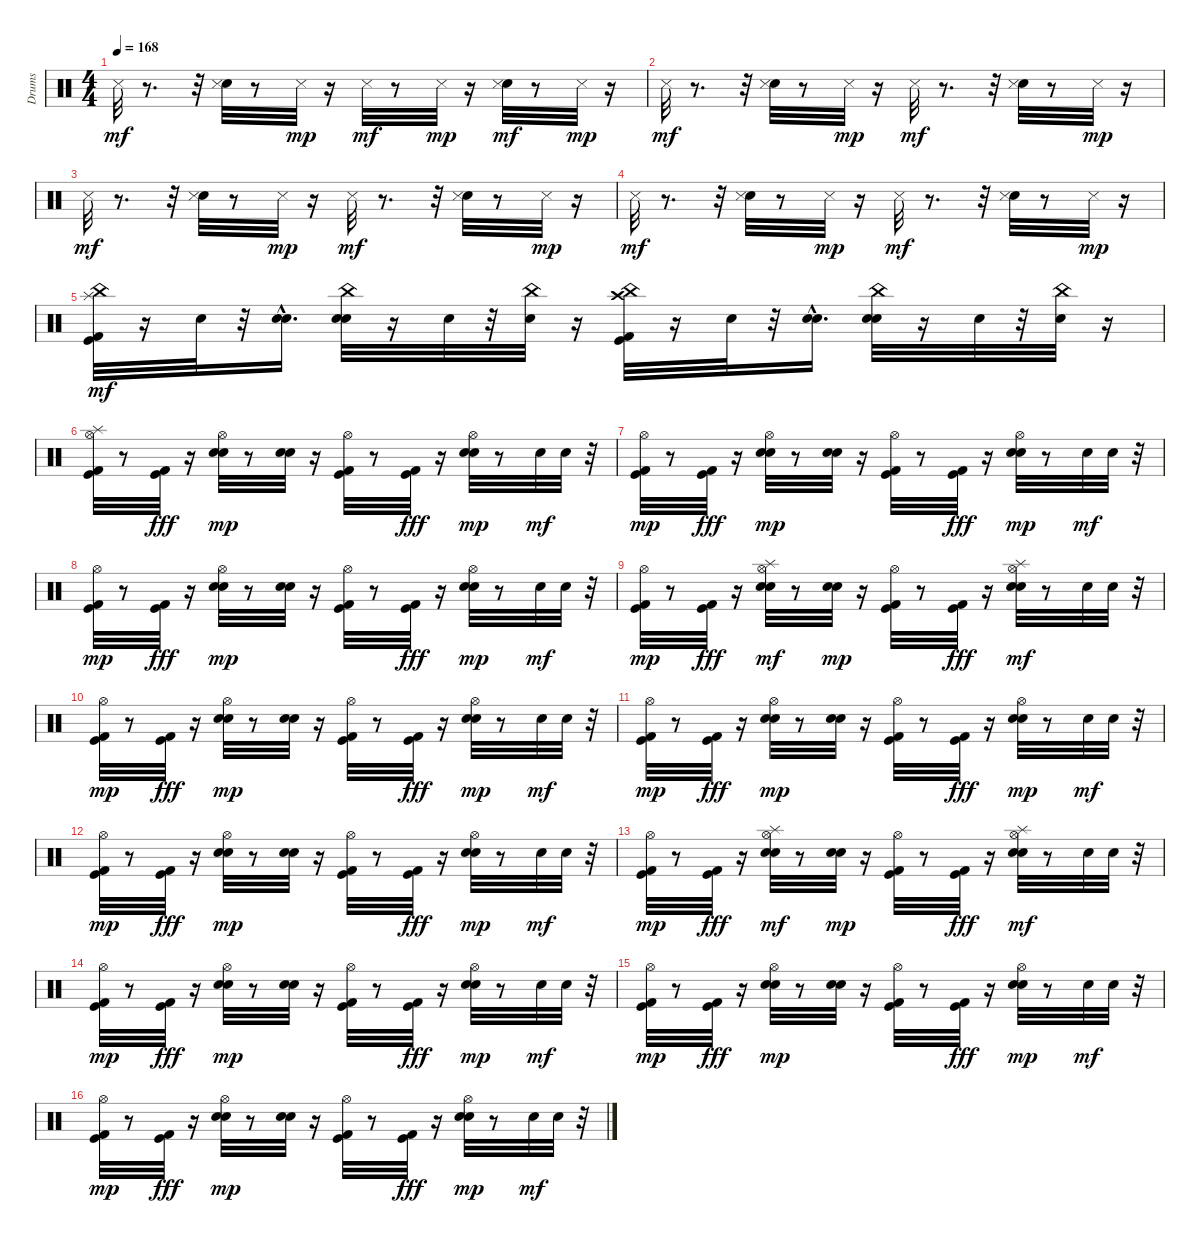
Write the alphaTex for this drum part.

\track ("Drums" "Drums") {instrument percussion}
\staff {score}
\articulation defaults
\ts (4 4)
\tempo 168
\clef neutral
\ks c "Snare (side stick) 3".32{dy mf}
r.8{d} r.32 ("Hand Clap (hit)" "Snare (side stick) 3").32 r.8 "Snare (side stick) 3".32{dy mp} r.16 "Snare (side stick) 3".32{dy mf} r.8 "Snare (side stick) 3".32{dy mp} r.16 ("Hand Clap (hit)" "Snare (side stick) 3").32{dy mf} r.8 "Snare (side stick) 3".32{dy mp} r.16 |
"Snare (side stick) 3".32{dy mf} r.8{d} r.32 ("Hand Clap (hit)" "Snare (side stick) 3").32 r.8 "Snare (side stick) 3".32{dy mp} r.16 "Snare (side stick) 3".32{dy mf} r.8{d} r.32 ("Hand Clap (hit)" "Snare (side stick) 3").32 r.8 "Snare (side stick) 3".32{dy mp} r.16 |
"Snare (side stick) 3".32{dy mf} r.8{d} r.32 ("Hand Clap (hit)" "Snare (side stick) 3").32 r.8 "Snare (side stick) 3".32{dy mp} r.16 "Snare (side stick) 3".32{dy mf} r.8{d} r.32 ("Hand Clap (hit)" "Snare (side stick) 3").32 r.8 "Snare (side stick) 3".32{dy mp} r.16 |
"Snare (side stick) 3".32{dy mf} r.8{d} r.32 ("Hand Clap (hit)" "Snare (side stick) 3").32 r.8 "Snare (side stick) 3".32{dy mp} r.16 "Snare (side stick) 3".32{dy mf} r.8{d} r.32 ("Hand Clap (hit)" "Snare (side stick) 3").32 r.8 "Snare (side stick) 3".32{dy mp} r.16 |
("Kick (hit) 2" "Kick (hit)" "China (hit)" "Splash (hit)").32{dy mf} r.16 "Snare (hit) 2".32 r.32 ("Snare (hit) 2"{hac} "Snare (hit) 2").16{d} ("Snare (hit) 2" "China (hit)" "Hand Clap (hit)").32 r.16 "Snare (hit) 2".32 r.32 ("China (hit)" "Snare (hit) 2").32 r.16 ("China (hit)" "Kick (hit) 2" "Kick (hit)" "Crash high (hit)").32 r.16 "Snare (hit) 2".32 r.32 ("Snare (hit) 2"{hac} "Snare (hit) 2").16{d} ("China (hit)" "Hand Clap (hit)" "Snare (hit) 2").32 r.16 "Snare (hit) 2".32 r.32 ("China (hit)" "Snare (hit) 2").32 r.16 |
("Kick (hit) 2" "Kick (hit)" "Hi-Hat (open)" "Splash (hit)").32 r.8 ("Kick (hit) 2" "Kick (hit)").32{dy fff} r.16 ("Snare (hit) 2" "Hand Clap (hit)" "Hi-Hat (open)").32{dy mp} r.8 ("Snare (hit) 2" "Hand Clap (hit)").32 r.16 ("Kick (hit) 2" "Kick (hit)" "Hi-Hat (open)").32 r.8 ("Kick (hit) 2" "Kick (hit)").32{dy fff} r.16 ("Snare (hit) 2" "Hand Clap (hit)" "Hi-Hat (open)").32{dy mp} r.8 "Snare (hit) 2".32{dy mf} "Hand Clap (hit)".32 r.32 |
("Kick (hit) 2" "Kick (hit)" "Hi-Hat (open)").32{dy mp} r.8 ("Kick (hit) 2" "Kick (hit)").32{dy fff} r.16 ("Snare (hit) 2" "Hand Clap (hit)" "Hi-Hat (open)").32{dy mp} r.8 ("Snare (hit) 2" "Hand Clap (hit)").32 r.16 ("Kick (hit) 2" "Kick (hit)" "Hi-Hat (open)").32 r.8 ("Kick (hit) 2" "Kick (hit)").32{dy fff} r.16 ("Snare (hit) 2" "Hand Clap (hit)" "Hi-Hat (open)").32{dy mp} r.8 "Snare (hit) 2".32{dy mf} "Hand Clap (hit)".32 r.32 |
("Kick (hit) 2" "Kick (hit)" "Hi-Hat (open)").32{dy mp} r.8 ("Kick (hit) 2" "Kick (hit)").32{dy fff} r.16 ("Snare (hit) 2" "Hand Clap (hit)" "Hi-Hat (open)").32{dy mp} r.8 ("Snare (hit) 2" "Hand Clap (hit)").32 r.16 ("Kick (hit) 2" "Kick (hit)" "Hi-Hat (open)").32 r.8 ("Kick (hit) 2" "Kick (hit)").32{dy fff} r.16 ("Snare (hit) 2" "Hand Clap (hit)" "Hi-Hat (open)").32{dy mp} r.8 "Snare (hit) 2".32{dy mf} "Hand Clap (hit)".32 r.32 |
("Kick (hit) 2" "Kick (hit)" "Hi-Hat (open)").32{dy mp} r.8 ("Kick (hit) 2" "Kick (hit)").32{dy fff} r.16 ("Snare (hit) 2" "Hand Clap (hit)" "Hi-Hat (open)" "Splash (hit)").32{dy mf} r.8 ("Snare (hit) 2" "Hand Clap (hit)").32{dy mp} r.16 ("Kick (hit) 2" "Kick (hit)" "Hi-Hat (open)").32 r.8 ("Kick (hit) 2" "Kick (hit)").32{dy fff} r.16 ("Snare (hit) 2" "Hand Clap (hit)" "Hi-Hat (open)" "Splash (hit)").32{dy mf} r.8 "Snare (hit) 2".32 "Hand Clap (hit)".32 r.32 |
("Kick (hit) 2" "Kick (hit)" "Hi-Hat (open)").32{dy mp} r.8 ("Kick (hit) 2" "Kick (hit)").32{dy fff} r.16 ("Snare (hit) 2" "Hand Clap (hit)" "Hi-Hat (open)").32{dy mp} r.8 ("Snare (hit) 2" "Hand Clap (hit)").32 r.16 ("Kick (hit) 2" "Kick (hit)" "Hi-Hat (open)").32 r.8 ("Kick (hit) 2" "Kick (hit)").32{dy fff} r.16 ("Snare (hit) 2" "Hand Clap (hit)" "Hi-Hat (open)").32{dy mp} r.8 "Snare (hit) 2".32{dy mf} "Hand Clap (hit)".32 r.32 |
("Kick (hit) 2" "Kick (hit)" "Hi-Hat (open)").32{dy mp} r.8 ("Kick (hit) 2" "Kick (hit)").32{dy fff} r.16 ("Snare (hit) 2" "Hand Clap (hit)" "Hi-Hat (open)").32{dy mp} r.8 ("Snare (hit) 2" "Hand Clap (hit)").32 r.16 ("Kick (hit) 2" "Kick (hit)" "Hi-Hat (open)").32 r.8 ("Kick (hit) 2" "Kick (hit)").32{dy fff} r.16 ("Snare (hit) 2" "Hand Clap (hit)" "Hi-Hat (open)").32{dy mp} r.8 "Snare (hit) 2".32{dy mf} "Hand Clap (hit)".32 r.32 |
("Kick (hit) 2" "Kick (hit)" "Hi-Hat (open)").32{dy mp} r.8 ("Kick (hit) 2" "Kick (hit)").32{dy fff} r.16 ("Snare (hit) 2" "Hand Clap (hit)" "Hi-Hat (open)").32{dy mp} r.8 ("Snare (hit) 2" "Hand Clap (hit)").32 r.16 ("Kick (hit) 2" "Kick (hit)" "Hi-Hat (open)").32 r.8 ("Kick (hit) 2" "Kick (hit)").32{dy fff} r.16 ("Snare (hit) 2" "Hand Clap (hit)" "Hi-Hat (open)").32{dy mp} r.8 "Snare (hit) 2".32{dy mf} "Hand Clap (hit)".32 r.32 |
("Kick (hit) 2" "Kick (hit)" "Hi-Hat (open)").32{dy mp} r.8 ("Kick (hit) 2" "Kick (hit)").32{dy fff} r.16 ("Snare (hit) 2" "Hand Clap (hit)" "Hi-Hat (open)" "Splash (hit)").32{dy mf} r.8 ("Snare (hit) 2" "Hand Clap (hit)").32{dy mp} r.16 ("Kick (hit) 2" "Kick (hit)" "Hi-Hat (open)").32 r.8 ("Kick (hit) 2" "Kick (hit)").32{dy fff} r.16 ("Snare (hit) 2" "Hand Clap (hit)" "Hi-Hat (open)" "Splash (hit)").32{dy mf} r.8 "Snare (hit) 2".32 "Hand Clap (hit)".32 r.32 |
("Kick (hit) 2" "Kick (hit)" "Hi-Hat (open)").32{dy mp} r.8 ("Kick (hit) 2" "Kick (hit)").32{dy fff} r.16 ("Snare (hit) 2" "Hand Clap (hit)" "Hi-Hat (open)").32{dy mp} r.8 ("Snare (hit) 2" "Hand Clap (hit)").32 r.16 ("Kick (hit) 2" "Kick (hit)" "Hi-Hat (open)").32 r.8 ("Kick (hit) 2" "Kick (hit)").32{dy fff} r.16 ("Snare (hit) 2" "Hand Clap (hit)" "Hi-Hat (open)").32{dy mp} r.8 "Snare (hit) 2".32{dy mf} "Hand Clap (hit)".32 r.32 |
("Kick (hit) 2" "Kick (hit)" "Hi-Hat (open)").32{dy mp} r.8 ("Kick (hit) 2" "Kick (hit)").32{dy fff} r.16 ("Snare (hit) 2" "Hand Clap (hit)" "Hi-Hat (open)").32{dy mp} r.8 ("Snare (hit) 2" "Hand Clap (hit)").32 r.16 ("Kick (hit) 2" "Kick (hit)" "Hi-Hat (open)").32 r.8 ("Kick (hit) 2" "Kick (hit)").32{dy fff} r.16 ("Snare (hit) 2" "Hand Clap (hit)" "Hi-Hat (open)").32{dy mp} r.8 "Snare (hit) 2".32{dy mf} "Hand Clap (hit)".32 r.32 |
("Kick (hit) 2" "Kick (hit)" "Hi-Hat (open)").32{dy mp} r.8 ("Kick (hit) 2" "Kick (hit)").32{dy fff} r.16 ("Snare (hit) 2" "Hand Clap (hit)" "Hi-Hat (open)").32{dy mp} r.8 ("Snare (hit) 2" "Hand Clap (hit)").32 r.16 ("Kick (hit) 2" "Kick (hit)" "Hi-Hat (open)").32 r.8 ("Kick (hit) 2" "Kick (hit)").32{dy fff} r.16 ("Snare (hit) 2" "Hand Clap (hit)" "Hi-Hat (open)").32{dy mp} r.8 "Snare (hit) 2".32{dy mf} "Hand Clap (hit)".32 r.32
